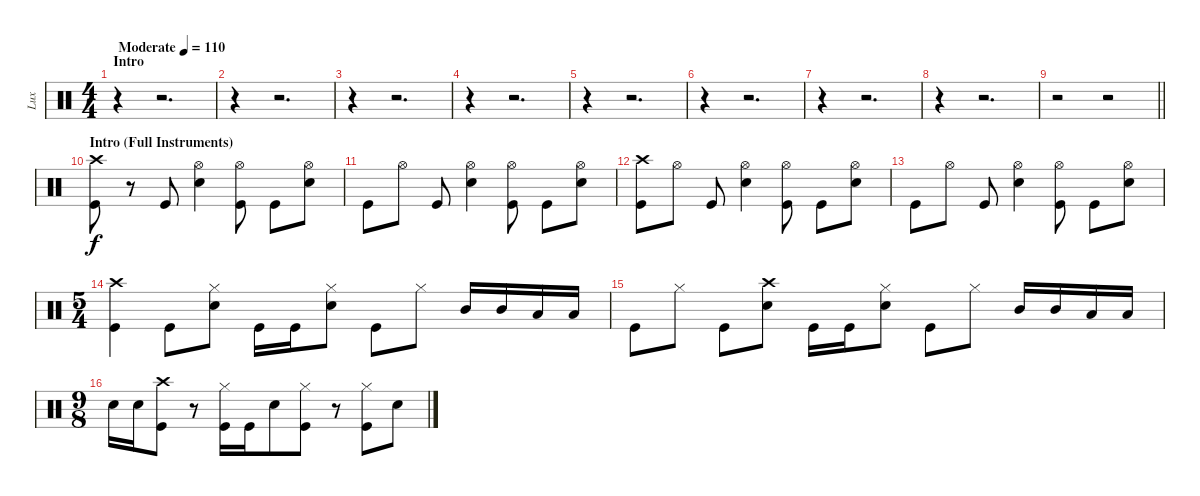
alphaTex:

\track ("Lux" "Lux") {instrument percussion}
\staff {score}
\articulation defaults
\ts (4 4)
\section ("" "Intro")
\tempo (110 "Moderate")
\clef neutral
\ks c
r.4{dy f} r.2{d} |
r.4 r.2{d} |
r.4 r.2{d} |
r.4 r.2{d} |
r.4 r.2{d} |
r.4 r.2{d} |
r.4 r.2{d} |
r.4 r.2{d} |
\barLineRight lightlight
r.2 r.2 |
\section ("" "Intro (Full Instruments)")
("Crash high (hit)" "Kick (hit)").8 r.8 "Kick (hit)".8 ("Hi-Hat (open)" "Snare (hit) 2").4 ("Hi-Hat (open)" "Kick (hit)").8 "Kick (hit)".8 ("Hi-Hat (open)" "Snare (hit) 2").8 |
"Kick (hit)".8 "Hi-Hat (open)".8 "Kick (hit)".8 ("Hi-Hat (open)" "Snare (hit) 2").4 ("Hi-Hat (open)" "Kick (hit)").8 "Kick (hit)".8 ("Hi-Hat (open)" "Snare (hit) 2").8 |
("Crash high (hit)" "Kick (hit)").8 "Hi-Hat (open)".8 "Kick (hit)".8 ("Hi-Hat (open)" "Snare (hit) 2").4 ("Hi-Hat (open)" "Kick (hit)").8 "Kick (hit)".8 ("Hi-Hat (open)" "Snare (hit) 2").8 |
"Kick (hit)".8 "Hi-Hat (open)".8 "Kick (hit)".8 ("Hi-Hat (open)" "Snare (hit) 2").4 ("Hi-Hat (open)" "Kick (hit)").8 "Kick (hit)".8 ("Hi-Hat (open)" "Snare (hit) 2").8 |
\ts (5 4)
("Crash high (hit)" "Kick (hit)").4 "Kick (hit)".8 ("Hi-Hat (closed)" "Snare (hit) 2").8 "Kick (hit)".16 "Kick (hit)".16 ("Hi-Hat (closed)" "Snare (hit) 2").8 "Kick (hit)".8 "Hi-Hat (closed)".8 "Mid Tom (hit)".16 "Mid Tom (hit)".16 "Low Tom (hit)".16 "Low Tom (hit)".16 |
"Kick (hit)".8 "Hi-Hat (closed)".8 "Kick (hit)".8 ("Crash high (hit)" "Snare (hit) 2").8 "Kick (hit)".16 "Kick (hit)".16 ("Hi-Hat (closed)" "Snare (hit) 2").8 "Kick (hit)".8 "Hi-Hat (closed)".8 "Mid Tom (hit)".16 "Mid Tom (hit)".16 "Low Tom (hit)".16 "Low Tom (hit)".16 |
\ts (9 8)
"Snare (hit) 2".16 "Snare (hit) 2".16 ("Crash high (hit)" "Kick (hit)").8 r.8 ("Hi-Hat (closed)" "Kick (hit)").16 "Kick (hit)".16 "Snare (hit) 2".8 ("Hi-Hat (closed)" "Kick (hit)").8 r.8 ("Hi-Hat (closed)" "Kick (hit)").8 "Snare (hit) 2".8
